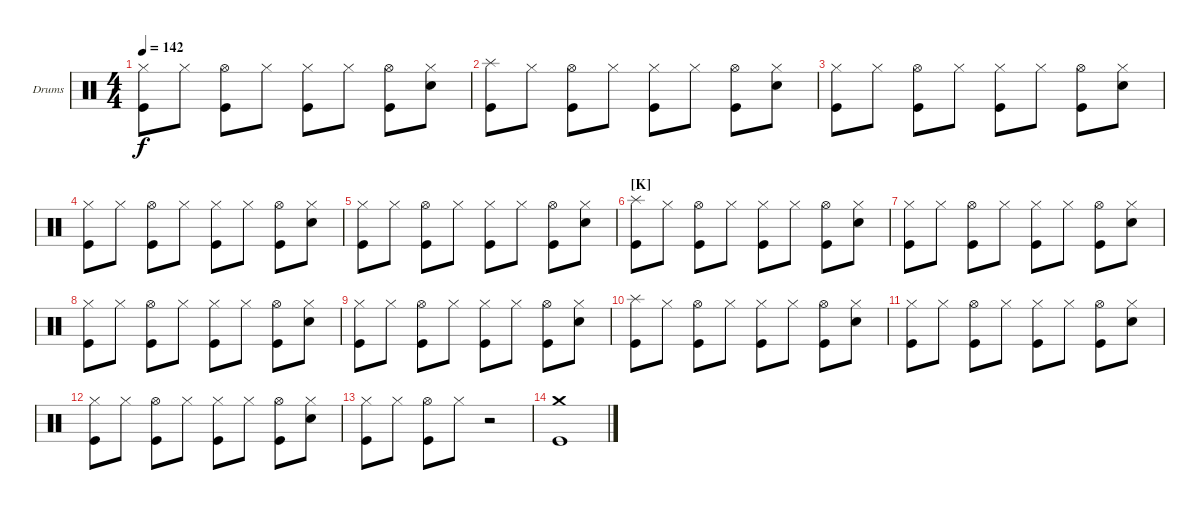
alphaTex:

\defaultSystemsLayout 4
\bracketExtendMode groupsimilarinstruments
\firstSystemTrackNameOrientation horizontal
\otherSystemsTrackNameOrientation horizontal
\track ("Drumkit" "Drums") {instrument percussion}
\staff {score}
\articulation defaults
\ts (4 4)
\tempo 142
\clef neutral
\ks c
("Kick (hit)" "Hi-Hat (closed)").8{dy f} "Hi-Hat (closed)".8 ("Hi-Hat (open)" "Kick (hit)").8 "Hi-Hat (closed)".8 ("Hi-Hat (closed)" "Kick (hit)").8 "Hi-Hat (closed)".8 ("Hi-Hat (open)" "Kick (hit)").8 ("Hi-Hat (closed)" "Snare (hit) 2").8 |
("Kick (hit)" "Splash (hit)").8 "Hi-Hat (closed)".8 ("Hi-Hat (open)" "Kick (hit)").8 "Hi-Hat (closed)".8 ("Hi-Hat (closed)" "Kick (hit)").8 "Hi-Hat (closed)".8 ("Hi-Hat (open)" "Kick (hit)").8 ("Hi-Hat (closed)" "Snare (hit) 2").8 |
("Kick (hit)" "Hi-Hat (closed)").8 "Hi-Hat (closed)".8 ("Hi-Hat (open)" "Kick (hit)").8 "Hi-Hat (closed)".8 ("Hi-Hat (closed)" "Kick (hit)").8 "Hi-Hat (closed)".8 ("Hi-Hat (open)" "Kick (hit)").8 ("Hi-Hat (closed)" "Snare (hit) 2").8 |
("Kick (hit)" "Hi-Hat (closed)").8 "Hi-Hat (closed)".8 ("Hi-Hat (open)" "Kick (hit)").8 "Hi-Hat (closed)".8 ("Hi-Hat (closed)" "Kick (hit)").8 "Hi-Hat (closed)".8 ("Hi-Hat (open)" "Kick (hit)").8 ("Hi-Hat (closed)" "Snare (hit) 2").8 |
("Kick (hit)" "Hi-Hat (closed)").8 "Hi-Hat (closed)".8 ("Hi-Hat (open)" "Kick (hit)").8 "Hi-Hat (closed)".8 ("Hi-Hat (closed)" "Kick (hit)").8 "Hi-Hat (closed)".8 ("Hi-Hat (open)" "Kick (hit)").8 ("Hi-Hat (closed)" "Snare (hit) 2").8 |
\section ("K" "")
("Kick (hit)" "Splash (hit)").8 "Hi-Hat (closed)".8 ("Hi-Hat (open)" "Kick (hit)").8 "Hi-Hat (closed)".8 ("Hi-Hat (closed)" "Kick (hit)").8 "Hi-Hat (closed)".8 ("Hi-Hat (open)" "Kick (hit)").8 ("Hi-Hat (closed)" "Snare (hit) 2").8 |
("Kick (hit)" "Hi-Hat (closed)").8 "Hi-Hat (closed)".8 ("Hi-Hat (open)" "Kick (hit)").8 "Hi-Hat (closed)".8 ("Hi-Hat (closed)" "Kick (hit)").8 "Hi-Hat (closed)".8 ("Hi-Hat (open)" "Kick (hit)").8 ("Hi-Hat (closed)" "Snare (hit) 2").8 |
("Kick (hit)" "Hi-Hat (closed)").8 "Hi-Hat (closed)".8 ("Hi-Hat (open)" "Kick (hit)").8 "Hi-Hat (closed)".8 ("Hi-Hat (closed)" "Kick (hit)").8 "Hi-Hat (closed)".8 ("Hi-Hat (open)" "Kick (hit)").8 ("Hi-Hat (closed)" "Snare (hit) 2").8 |
("Kick (hit)" "Hi-Hat (closed)").8 "Hi-Hat (closed)".8 ("Hi-Hat (open)" "Kick (hit)").8 "Hi-Hat (closed)".8 ("Hi-Hat (closed)" "Kick (hit)").8 "Hi-Hat (closed)".8 ("Hi-Hat (open)" "Kick (hit)").8 ("Hi-Hat (closed)" "Snare (hit) 2").8 |
("Kick (hit)" "Splash (hit)").8 "Hi-Hat (closed)".8 ("Hi-Hat (open)" "Kick (hit)").8 "Hi-Hat (closed)".8 ("Hi-Hat (closed)" "Kick (hit)").8 "Hi-Hat (closed)".8 ("Hi-Hat (open)" "Kick (hit)").8 ("Hi-Hat (closed)" "Snare (hit) 2").8 |
("Kick (hit)" "Hi-Hat (closed)").8 "Hi-Hat (closed)".8 ("Hi-Hat (open)" "Kick (hit)").8 "Hi-Hat (closed)".8 ("Hi-Hat (closed)" "Kick (hit)").8 "Hi-Hat (closed)".8 ("Hi-Hat (open)" "Kick (hit)").8 ("Hi-Hat (closed)" "Snare (hit) 2").8 |
("Kick (hit)" "Hi-Hat (closed)").8 "Hi-Hat (closed)".8 ("Hi-Hat (open)" "Kick (hit)").8 "Hi-Hat (closed)".8 ("Hi-Hat (closed)" "Kick (hit)").8 "Hi-Hat (closed)".8 ("Hi-Hat (open)" "Kick (hit)").8 ("Hi-Hat (closed)" "Snare (hit) 2").8 |
("Kick (hit)" "Hi-Hat (closed)").8 "Hi-Hat (closed)".8 ("Hi-Hat (open)" "Kick (hit)").8 "Hi-Hat (closed)".8 r.2 |
("Kick (hit)" "Crash medium (hit)").1
